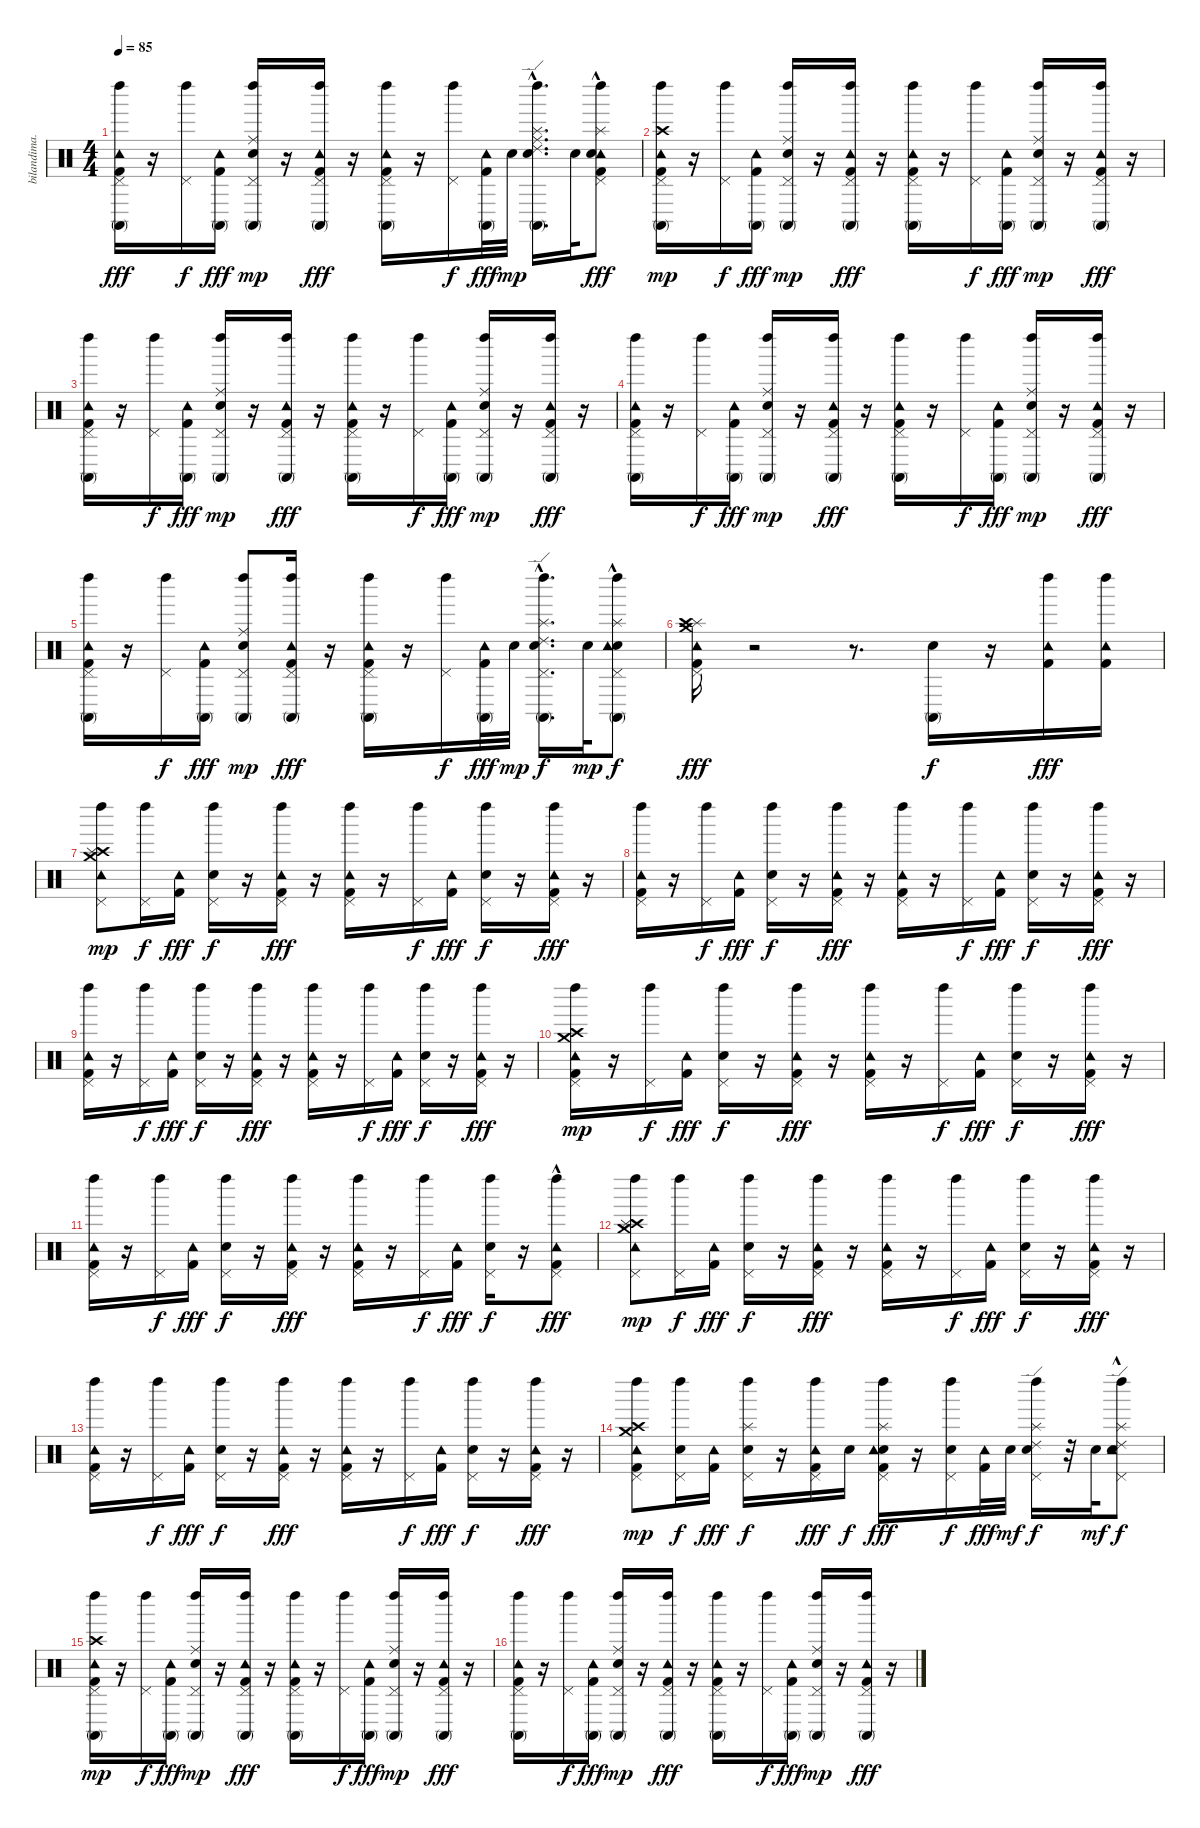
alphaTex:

\track ("bilandima.ru" "bilandima.") {instrument percussion}
\staff {score}
\articulation defaults
\ts (4 4)
\tempo 85
\clef neutral
\ks c
("Kick (hit) 2" "Pedal Hi-Hat (hit)" "Tambourine (hit)" "Left Maraca (hit)" "Conga high (mute)").16{dy fff} r.16 ("Left Maraca (hit)" "Pedal Hi-Hat (hit)").16{dy f} ("Kick (hit) 2" "Tambourine (hit)" "Conga high (mute)").16{dy fff} ("Conga high (mute)" "Ride (middle)" "Left Maraca (hit)" "Pedal Hi-Hat (hit)" "Electric Snare (hit)").16{dy mp} r.16 ("Kick (hit) 2" "Pedal Hi-Hat (hit)" "Tambourine (hit)" "Left Maraca (hit)" "Conga high (mute)").16{dy fff} r.16 ("Conga high (mute)" "Left Maraca (hit)" "Tambourine (hit)" "Pedal Hi-Hat (hit)" "Kick (hit) 2").16 r.16 ("Left Maraca (hit)" "Pedal Hi-Hat (hit)").16{dy f} ("Kick (hit) 2" "Tambourine (hit)" "Conga high (mute)").32{dy fff} "Electric Snare (hit)".32{dy mp} ("Ride (middle)" "Conga high (mute)"{hac} "Ride (edge) 2"{hac} "Electric Snare (hit)" "Splash (hit)" "Left Maraca (hit)").16{d} "Electric Snare (hit)".32 ("Kick (hit) 2" "Pedal Hi-Hat (hit)" "Tambourine (hit)" "Left Maraca (hit)" "Splash (hit)"{hac} "Electric Snare (hit)").8{dy fff} |
("Conga high (mute)" "Left Maraca (hit)" "Tambourine (hit)" "Pedal Hi-Hat (hit)" "Kick (hit) 2" "Crash high (hit)").16{dy mp} r.16 ("Left Maraca (hit)" "Pedal Hi-Hat (hit)").16{dy f} ("Conga high (mute)" "Tambourine (hit)" "Kick (hit) 2").16{dy fff} ("Electric Snare (hit)" "Pedal Hi-Hat (hit)" "Left Maraca (hit)" "Conga high (mute)" "Ride (middle)").16{dy mp} r.16 ("Kick (hit) 2" "Pedal Hi-Hat (hit)" "Tambourine (hit)" "Left Maraca (hit)" "Conga high (mute)").16{dy fff} r.16 ("Left Maraca (hit)" "Tambourine (hit)" "Pedal Hi-Hat (hit)" "Kick (hit) 2" "Conga high (mute)").16 r.16 ("Pedal Hi-Hat (hit)" "Left Maraca (hit)").16{dy f} ("Conga high (mute)" "Tambourine (hit)" "Kick (hit) 2").16{dy fff} ("Ride (middle)" "Conga high (mute)" "Left Maraca (hit)" "Pedal Hi-Hat (hit)" "Electric Snare (hit)").16{dy mp} r.16 ("Conga high (mute)" "Left Maraca (hit)" "Tambourine (hit)" "Pedal Hi-Hat (hit)" "Kick (hit) 2").16{dy fff} r.16 |
("Conga high (mute)" "Left Maraca (hit)" "Tambourine (hit)" "Pedal Hi-Hat (hit)" "Kick (hit) 2").16 r.16 ("Pedal Hi-Hat (hit)" "Left Maraca (hit)").16{dy f} ("Conga high (mute)" "Tambourine (hit)" "Kick (hit) 2").16{dy fff} ("Ride (middle)" "Conga high (mute)" "Left Maraca (hit)" "Pedal Hi-Hat (hit)" "Electric Snare (hit)").16{dy mp} r.16 ("Conga high (mute)" "Left Maraca (hit)" "Tambourine (hit)" "Pedal Hi-Hat (hit)" "Kick (hit) 2").16{dy fff} r.16 ("Conga high (mute)" "Kick (hit) 2" "Pedal Hi-Hat (hit)" "Tambourine (hit)" "Left Maraca (hit)").16 r.16 ("Left Maraca (hit)" "Pedal Hi-Hat (hit)").16{dy f} ("Kick (hit) 2" "Tambourine (hit)" "Conga high (mute)").16{dy fff} ("Ride (middle)" "Conga high (mute)" "Left Maraca (hit)" "Pedal Hi-Hat (hit)" "Electric Snare (hit)").16{dy mp} r.16 ("Kick (hit) 2" "Pedal Hi-Hat (hit)" "Tambourine (hit)" "Left Maraca (hit)" "Conga high (mute)").16{dy fff} r.16 |
("Conga high (mute)" "Left Maraca (hit)" "Tambourine (hit)" "Pedal Hi-Hat (hit)" "Kick (hit) 2").16 r.16 ("Left Maraca (hit)" "Pedal Hi-Hat (hit)").16{dy f} ("Conga high (mute)" "Tambourine (hit)" "Kick (hit) 2").16{dy fff} ("Conga high (mute)" "Left Maraca (hit)" "Pedal Hi-Hat (hit)" "Electric Snare (hit)" "Ride (middle)").16{dy mp} r.16 ("Kick (hit) 2" "Pedal Hi-Hat (hit)" "Tambourine (hit)" "Left Maraca (hit)" "Conga high (mute)").16{dy fff} r.16 ("Conga high (mute)" "Left Maraca (hit)" "Tambourine (hit)" "Pedal Hi-Hat (hit)" "Kick (hit) 2").16 r.16 ("Left Maraca (hit)" "Pedal Hi-Hat (hit)").16{dy f} ("Conga high (mute)" "Tambourine (hit)" "Kick (hit) 2").16{dy fff} ("Ride (middle)" "Electric Snare (hit)" "Pedal Hi-Hat (hit)" "Left Maraca (hit)" "Conga high (mute)").16{dy mp} r.16 ("Conga high (mute)" "Left Maraca (hit)" "Tambourine (hit)" "Pedal Hi-Hat (hit)" "Kick (hit) 2").16{dy fff} r.16 |
("Conga high (mute)" "Left Maraca (hit)" "Tambourine (hit)" "Pedal Hi-Hat (hit)" "Kick (hit) 2").16 r.16 ("Left Maraca (hit)" "Pedal Hi-Hat (hit)").16{dy f} ("Conga high (mute)" "Tambourine (hit)" "Kick (hit) 2").16{dy fff} ("Conga high (mute)" "Ride (middle)" "Left Maraca (hit)" "Pedal Hi-Hat (hit)" "Electric Snare (hit)").8{dy mp} ("Conga high (mute)" "Left Maraca (hit)" "Tambourine (hit)" "Pedal Hi-Hat (hit)" "Kick (hit) 2").16{dy fff} r.16 ("Kick (hit) 2" "Pedal Hi-Hat (hit)" "Tambourine (hit)" "Left Maraca (hit)" "Conga high (mute)").16 r.16 ("Pedal Hi-Hat (hit)" "Left Maraca (hit)").16{dy f} ("Conga high (mute)" "Tambourine (hit)" "Kick (hit) 2").32{dy fff} "Electric Snare (hit)".32{dy mp} ("Ride (edge) 2"{hac} "Conga high (mute)" "Electric Snare (hit)" "Splash (hit)" "Left Maraca (hit)" "Pedal Hi-Hat (hit)").16{d dy f} "Electric Snare (hit)".32{dy mp} ("Conga high (mute)"{hac} "Electric Snare (hit)" "Splash (hit)" "Left Maraca (hit)"{hac} "Tambourine (hit)" "Pedal Hi-Hat (hit)").8{dy f} |
("Splash (hit)" "Tambourine (hit)" "Crash medium (hit)" "Crash high (hit)" "Pedal Hi-Hat (hit)" "Kick (hit) 2").16{dy fff} r.2 r.8{d} ("Electric Snare (hit)" "Conga high (mute)").16{dy f} r.16 ("Kick (hit) 2" "Left Maraca (hit)" "Tambourine (hit)").16{dy fff} ("Left Maraca (hit)" "Tambourine (hit)" "Kick (hit) 2").16 |
("Crash high (hit)" "Crash medium (hit)" "Splash (hit)" "Left Maraca (hit)" "Tambourine (hit)" "Pedal Hi-Hat (hit)").8{dy mp} ("Left Maraca (hit)" "Pedal Hi-Hat (hit)").16{dy f} ("Tambourine (hit)" "Kick (hit) 2").16{dy fff} ("Electric Snare (hit)" "Pedal Hi-Hat (hit)" "Left Maraca (hit)").16{dy f} r.16 ("Left Maraca (hit)" "Tambourine (hit)" "Pedal Hi-Hat (hit)" "Kick (hit) 2").16{dy fff} r.16 ("Left Maraca (hit)" "Tambourine (hit)" "Pedal Hi-Hat (hit)" "Kick (hit) 2").16 r.16 ("Pedal Hi-Hat (hit)" "Left Maraca (hit)").16{dy f} ("Tambourine (hit)" "Kick (hit) 2").16{dy fff} ("Left Maraca (hit)" "Pedal Hi-Hat (hit)" "Electric Snare (hit)").16{dy f} r.16 ("Left Maraca (hit)" "Tambourine (hit)" "Pedal Hi-Hat (hit)" "Kick (hit) 2").16{dy fff} r.16 |
("Left Maraca (hit)" "Tambourine (hit)" "Pedal Hi-Hat (hit)" "Kick (hit) 2").16 r.16 ("Left Maraca (hit)" "Pedal Hi-Hat (hit)").16{dy f} ("Tambourine (hit)" "Kick (hit) 2").16{dy fff} ("Left Maraca (hit)" "Pedal Hi-Hat (hit)" "Electric Snare (hit)").16{dy f} r.16 ("Left Maraca (hit)" "Tambourine (hit)" "Pedal Hi-Hat (hit)" "Kick (hit) 2").16{dy fff} r.16 ("Kick (hit) 2" "Pedal Hi-Hat (hit)" "Tambourine (hit)" "Left Maraca (hit)").16 r.16 ("Left Maraca (hit)" "Pedal Hi-Hat (hit)").16{dy f} ("Kick (hit) 2" "Tambourine (hit)").16{dy fff} ("Left Maraca (hit)" "Pedal Hi-Hat (hit)" "Electric Snare (hit)").16{dy f} r.16 ("Kick (hit) 2" "Pedal Hi-Hat (hit)" "Tambourine (hit)" "Left Maraca (hit)").16{dy fff} r.16 |
("Left Maraca (hit)" "Tambourine (hit)" "Pedal Hi-Hat (hit)" "Kick (hit) 2").16 r.16 ("Left Maraca (hit)" "Pedal Hi-Hat (hit)").16{dy f} ("Tambourine (hit)" "Kick (hit) 2").16{dy fff} ("Electric Snare (hit)" "Pedal Hi-Hat (hit)" "Left Maraca (hit)").16{dy f} r.16 ("Left Maraca (hit)" "Tambourine (hit)" "Pedal Hi-Hat (hit)" "Kick (hit) 2").16{dy fff} r.16 ("Left Maraca (hit)" "Tambourine (hit)" "Pedal Hi-Hat (hit)" "Kick (hit) 2").16 r.16 ("Left Maraca (hit)" "Pedal Hi-Hat (hit)").16{dy f} ("Tambourine (hit)" "Kick (hit) 2").16{dy fff} ("Electric Snare (hit)" "Pedal Hi-Hat (hit)" "Left Maraca (hit)").16{dy f} r.16 ("Left Maraca (hit)" "Tambourine (hit)" "Pedal Hi-Hat (hit)" "Kick (hit) 2").16{dy fff} r.16 |
("Left Maraca (hit)" "Tambourine (hit)" "Pedal Hi-Hat (hit)" "Kick (hit) 2" "Crash high (hit)" "Crash medium (hit)").16{dy mp} r.16 ("Pedal Hi-Hat (hit)" "Left Maraca (hit)").16{dy f} ("Tambourine (hit)" "Kick (hit) 2").16{dy fff} ("Left Maraca (hit)" "Pedal Hi-Hat (hit)" "Electric Snare (hit)").16{dy f} r.16 ("Left Maraca (hit)" "Tambourine (hit)" "Pedal Hi-Hat (hit)" "Kick (hit) 2").16{dy fff} r.16 ("Kick (hit) 2" "Pedal Hi-Hat (hit)" "Tambourine (hit)" "Left Maraca (hit)").16 r.16 ("Pedal Hi-Hat (hit)" "Left Maraca (hit)").16{dy f} ("Kick (hit) 2" "Tambourine (hit)").16{dy fff} ("Left Maraca (hit)" "Pedal Hi-Hat (hit)" "Electric Snare (hit)").16{dy f} r.16 ("Left Maraca (hit)" "Tambourine (hit)" "Pedal Hi-Hat (hit)" "Kick (hit) 2").16{dy fff} r.16 |
("Kick (hit) 2" "Pedal Hi-Hat (hit)" "Tambourine (hit)" "Left Maraca (hit)").16 r.16 ("Left Maraca (hit)" "Pedal Hi-Hat (hit)").16{dy f} ("Kick (hit) 2" "Tambourine (hit)").16{dy fff} ("Left Maraca (hit)" "Pedal Hi-Hat (hit)" "Electric Snare (hit)").16{dy f} r.16 ("Kick (hit) 2" "Pedal Hi-Hat (hit)" "Tambourine (hit)" "Left Maraca (hit)").16{dy fff} r.16 ("Left Maraca (hit)" "Tambourine (hit)" "Pedal Hi-Hat (hit)" "Kick (hit) 2").16 r.16 ("Left Maraca (hit)" "Pedal Hi-Hat (hit)").16{dy f} ("Kick (hit) 2" "Tambourine (hit)").16{dy fff} ("Electric Snare (hit)" "Pedal Hi-Hat (hit)" "Left Maraca (hit)").16{dy f} r.16 ("Kick (hit) 2"{hac} "Pedal Hi-Hat (hit)" "Tambourine (hit)" "Left Maraca (hit)").8{dy fff} |
("Crash high (hit)" "Crash medium (hit)" "Splash (hit)" "Left Maraca (hit)" "Tambourine (hit)" "Pedal Hi-Hat (hit)").8{dy mp} ("Pedal Hi-Hat (hit)" "Left Maraca (hit)").16{dy f} ("Tambourine (hit)" "Kick (hit) 2").16{dy fff} ("Electric Snare (hit)" "Pedal Hi-Hat (hit)" "Left Maraca (hit)").16{dy f} r.16 ("Left Maraca (hit)" "Tambourine (hit)" "Pedal Hi-Hat (hit)" "Kick (hit) 2").16{dy fff} r.16 ("Left Maraca (hit)" "Tambourine (hit)" "Pedal Hi-Hat (hit)" "Kick (hit) 2").16 r.16 ("Pedal Hi-Hat (hit)" "Left Maraca (hit)").16{dy f} ("Tambourine (hit)" "Kick (hit) 2").16{dy fff} ("Left Maraca (hit)" "Pedal Hi-Hat (hit)" "Electric Snare (hit)").16{dy f} r.16 ("Left Maraca (hit)" "Tambourine (hit)" "Pedal Hi-Hat (hit)" "Kick (hit) 2").16{dy fff} r.16 |
("Kick (hit) 2" "Pedal Hi-Hat (hit)" "Tambourine (hit)" "Left Maraca (hit)").16 r.16 ("Left Maraca (hit)" "Pedal Hi-Hat (hit)").16{dy f} ("Kick (hit) 2" "Tambourine (hit)").16{dy fff} ("Left Maraca (hit)" "Pedal Hi-Hat (hit)" "Electric Snare (hit)").16{dy f} r.16 ("Left Maraca (hit)" "Tambourine (hit)" "Pedal Hi-Hat (hit)" "Kick (hit) 2").16{dy fff} r.16 ("Left Maraca (hit)" "Tambourine (hit)" "Pedal Hi-Hat (hit)" "Kick (hit) 2").16 r.16 ("Left Maraca (hit)" "Pedal Hi-Hat (hit)").16{dy f} ("Kick (hit) 2" "Tambourine (hit)").16{dy fff} ("Left Maraca (hit)" "Pedal Hi-Hat (hit)" "Electric Snare (hit)").16{dy f} r.16 ("Kick (hit) 2" "Pedal Hi-Hat (hit)" "Tambourine (hit)" "Left Maraca (hit)").16{dy fff} r.16 |
("Left Maraca (hit)" "Tambourine (hit)" "Pedal Hi-Hat (hit)" "Kick (hit) 2" "Crash high (hit)" "Crash medium (hit)").8{dy mp} ("Electric Snare (hit)" "Left Maraca (hit)" "Pedal Hi-Hat (hit)").16{dy f} ("Tambourine (hit)" "Kick (hit) 2").16{dy fff} ("Electric Snare (hit)" "Pedal Hi-Hat (hit)" "Left Maraca (hit)" "Splash (hit)").16{dy f} r.16 ("Left Maraca (hit)" "Tambourine (hit)" "Pedal Hi-Hat (hit)" "Kick (hit) 2").16{dy fff} "Electric Snare (hit)".16{dy f} ("Electric Snare (hit)" "Splash (hit)" "Left Maraca (hit)" "Tambourine (hit)" "Pedal Hi-Hat (hit)" "Kick (hit) 2").16{dy fff} r.16 ("Pedal Hi-Hat (hit)" "Left Maraca (hit)" "Electric Snare (hit)").16{dy f} ("Tambourine (hit)" "Kick (hit) 2").32{dy fff} "Electric Snare (hit)".32{dy mf} ("Pedal Hi-Hat (hit)" "Left Maraca (hit)" "Splash (hit)" "Electric Snare (hit)" "Ride (edge) 2").16{dy f} r.32 "Electric Snare (hit)".32{dy mf} ("Ride (edge) 2" "Splash (hit)"{hac} "Electric Snare (hit)" "Left Maraca (hit)" "Tambourine (hit)" "Pedal Hi-Hat (hit)").8{dy f} |
("Conga high (mute)" "Left Maraca (hit)" "Tambourine (hit)" "Pedal Hi-Hat (hit)" "Kick (hit) 2" "Crash high (hit)").16{dy mp} r.16 ("Pedal Hi-Hat (hit)" "Left Maraca (hit)").16{dy f} ("Conga high (mute)" "Tambourine (hit)" "Kick (hit) 2").16{dy fff} ("Ride (middle)" "Conga high (mute)" "Left Maraca (hit)" "Pedal Hi-Hat (hit)" "Electric Snare (hit)").16{dy mp} r.16 ("Conga high (mute)" "Left Maraca (hit)" "Tambourine (hit)" "Pedal Hi-Hat (hit)" "Kick (hit) 2").16{dy fff} r.16 ("Conga high (mute)" "Kick (hit) 2" "Pedal Hi-Hat (hit)" "Tambourine (hit)" "Left Maraca (hit)").16 r.16 ("Left Maraca (hit)" "Pedal Hi-Hat (hit)").16{dy f} ("Kick (hit) 2" "Tambourine (hit)" "Conga high (mute)").16{dy fff} ("Ride (middle)" "Conga high (mute)" "Left Maraca (hit)" "Pedal Hi-Hat (hit)" "Electric Snare (hit)").16{dy mp} r.16 ("Kick (hit) 2" "Pedal Hi-Hat (hit)" "Tambourine (hit)" "Left Maraca (hit)" "Conga high (mute)").16{dy fff} r.16 |
("Conga high (mute)" "Left Maraca (hit)" "Tambourine (hit)" "Pedal Hi-Hat (hit)" "Kick (hit) 2").16 r.16 ("Left Maraca (hit)" "Pedal Hi-Hat (hit)").16{dy f} ("Kick (hit) 2" "Tambourine (hit)" "Conga high (mute)").16{dy fff} ("Ride (middle)" "Conga high (mute)" "Left Maraca (hit)" "Pedal Hi-Hat (hit)" "Electric Snare (hit)").16{dy mp} r.16 ("Kick (hit) 2" "Pedal Hi-Hat (hit)" "Tambourine (hit)" "Left Maraca (hit)" "Conga high (mute)").16{dy fff} r.16 ("Left Maraca (hit)" "Tambourine (hit)" "Pedal Hi-Hat (hit)" "Kick (hit) 2" "Conga high (mute)").16 r.16 ("Left Maraca (hit)" "Pedal Hi-Hat (hit)").16{dy f} ("Conga high (mute)" "Tambourine (hit)" "Kick (hit) 2").16{dy fff} ("Electric Snare (hit)" "Pedal Hi-Hat (hit)" "Left Maraca (hit)" "Conga high (mute)" "Ride (middle)").16{dy mp} r.16 ("Conga high (mute)" "Left Maraca (hit)" "Tambourine (hit)" "Pedal Hi-Hat (hit)" "Kick (hit) 2").16{dy fff} r.16
